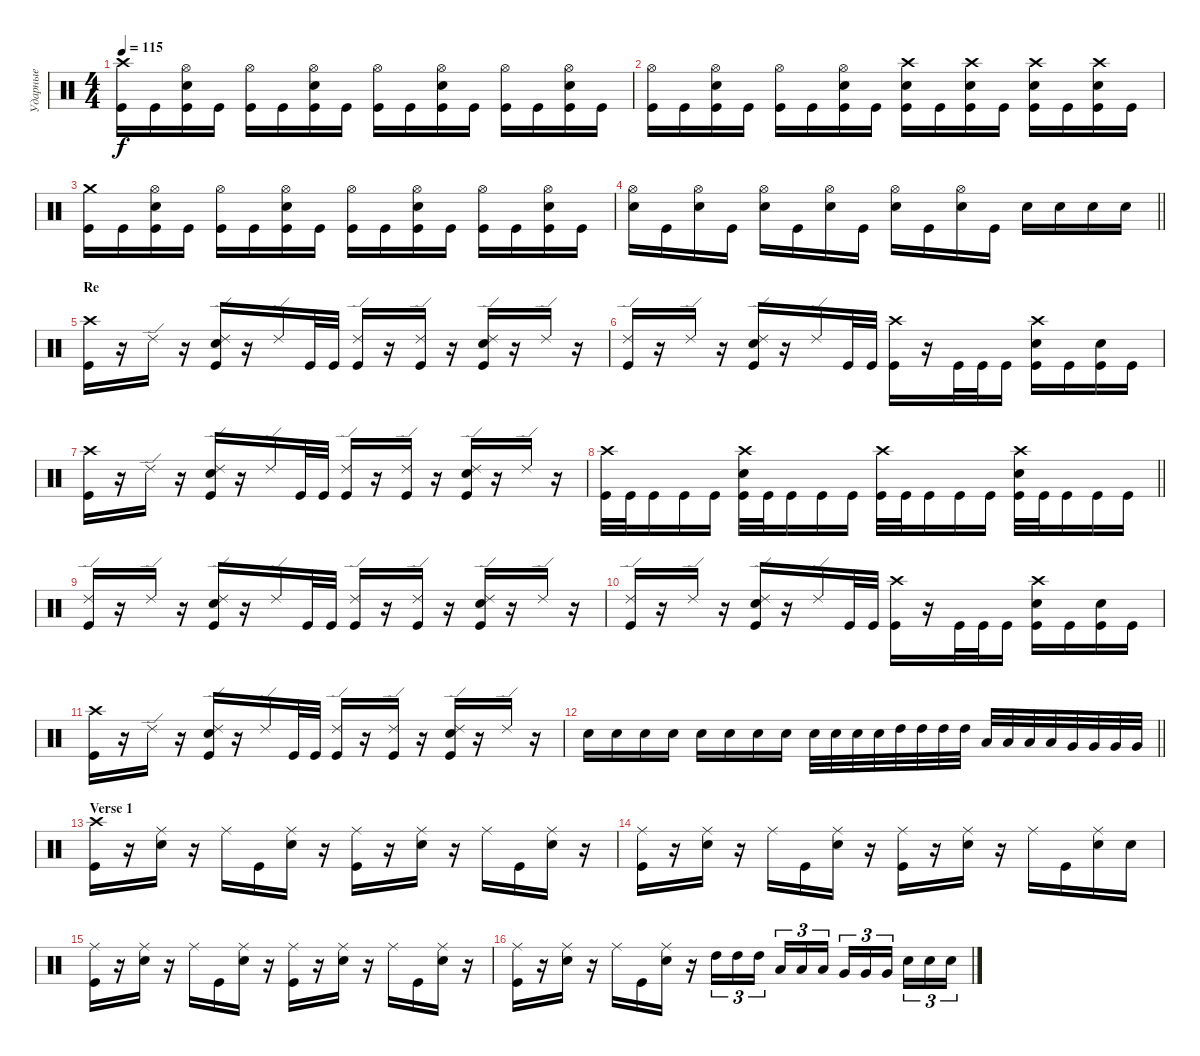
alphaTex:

\track ("Ударные" "Ударные") {instrument percussion}
\staff {score}
\articulation defaults
\ts (4 4)
\tempo 115
\clef neutral
\ks c
("Crash high (hit)" "Kick (hit)").16{dy f} "Kick (hit)".16 ("Hi-Hat (open)" "Snare (hit) 2" "Kick (hit)").16 "Kick (hit)".16 ("Hi-Hat (open)" "Kick (hit)").16 "Kick (hit)".16 ("Hi-Hat (open)" "Snare (hit) 2" "Kick (hit)").16 "Kick (hit)".16 ("Hi-Hat (open)" "Kick (hit)").16 "Kick (hit)".16 ("Hi-Hat (open)" "Snare (hit) 2" "Kick (hit)").16 "Kick (hit)".16 ("Hi-Hat (open)" "Kick (hit)").16 "Kick (hit)".16 ("Hi-Hat (open)" "Snare (hit) 2" "Kick (hit)").16 "Kick (hit)".16 |
("Hi-Hat (open)" "Kick (hit)").16 "Kick (hit)".16 ("Hi-Hat (open)" "Snare (hit) 2" "Kick (hit)").16 "Kick (hit)".16 ("Hi-Hat (open)" "Kick (hit)").16 "Kick (hit)".16 ("Hi-Hat (open)" "Snare (hit) 2" "Kick (hit)").16 "Kick (hit)".16 ("Crash high (hit)" "Snare (hit) 2" "Kick (hit)").16 "Kick (hit)".16 ("Crash high (hit)" "Snare (hit) 2" "Kick (hit)").16 "Kick (hit)".16 ("Crash high (hit)" "Snare (hit) 2" "Kick (hit)").16 "Kick (hit)".16 ("Crash high (hit)" "Snare (hit) 2" "Kick (hit)").16 "Kick (hit)".16 |
("Crash medium (hit)" "Kick (hit)").16 "Kick (hit)".16 ("Hi-Hat (open)" "Snare (hit) 2" "Kick (hit)").16 "Kick (hit)".16 ("Hi-Hat (open)" "Kick (hit)").16 "Kick (hit)".16 ("Hi-Hat (open)" "Snare (hit) 2" "Kick (hit)").16 "Kick (hit)".16 ("Hi-Hat (open)" "Kick (hit)").16 "Kick (hit)".16 ("Hi-Hat (open)" "Snare (hit) 2" "Kick (hit)").16 "Kick (hit)".16 ("Hi-Hat (open)" "Kick (hit)").16 "Kick (hit)".16 ("Hi-Hat (open)" "Snare (hit) 2" "Kick (hit)").16 "Kick (hit)".16 |
\barLineRight lightlight
("Hi-Hat (open)" "Snare (hit) 2").16 "Kick (hit)".16 ("Hi-Hat (open)" "Snare (hit) 2").16 "Kick (hit)".16 ("Hi-Hat (open)" "Snare (hit) 2").16 "Kick (hit)".16 ("Hi-Hat (open)" "Snare (hit) 2").16 "Kick (hit)".16 ("Hi-Hat (open)" "Snare (hit) 2").16 "Kick (hit)".16 ("Hi-Hat (open)" "Snare (hit) 2").16 "Kick (hit)".16 "Snare (hit) 2".16 "Snare (hit) 2".16 "Snare (hit) 2".16 "Snare (hit) 2".16 |
\section ("" "Re")
("Crash high (hit)" "Kick (hit)").16 r.16 "Ride (edge) 2".16 r.16 ("Ride (edge) 2" "Snare (hit) 2" "Kick (hit)").16 r.16 "Ride (edge) 2".16 "Kick (hit)".32 "Kick (hit)".32 ("Ride (edge) 2" "Kick (hit)").16 r.16 ("Ride (edge) 2" "Kick (hit)").16 r.16 ("Ride (edge) 2" "Snare (hit) 2" "Kick (hit)").16 r.16 "Ride (edge) 2".16 r.16 |
("Ride (edge) 2" "Kick (hit)").16 r.16 "Ride (edge) 2".16 r.16 ("Ride (edge) 2" "Snare (hit) 2" "Kick (hit)").16 r.16 "Ride (edge) 2".16 "Kick (hit)".32 "Kick (hit)".32 ("Crash high (hit)" "Kick (hit)").16 r.16 "Kick (hit)".32 "Kick (hit)".32 "Kick (hit)".16 ("Crash high (hit)" "Snare (hit) 2" "Kick (hit)").16 "Kick (hit)".16 ("Snare (hit) 2" "Kick (hit)").16 "Kick (hit)".16 |
("Crash high (hit)" "Kick (hit)").16 r.16 "Ride (edge) 2".16 r.16 ("Ride (edge) 2" "Snare (hit) 2" "Kick (hit)").16 r.16 "Ride (edge) 2".16 "Kick (hit)".32 "Kick (hit)".32 ("Ride (edge) 2" "Kick (hit)").16 r.16 ("Ride (edge) 2" "Kick (hit)").16 r.16 ("Ride (edge) 2" "Snare (hit) 2" "Kick (hit)").16 r.16 "Ride (edge) 2".16 r.16 |
\barLineRight lightlight
("Crash high (hit)" "Kick (hit)").32 "Kick (hit)".32 "Kick (hit)".16 "Kick (hit)".16 "Kick (hit)".16 ("Crash high (hit)" "Snare (hit) 2" "Kick (hit)").32 "Kick (hit)".32 "Kick (hit)".16 "Kick (hit)".16 "Kick (hit)".16 ("Crash high (hit)" "Kick (hit)").32 "Kick (hit)".32 "Kick (hit)".16 "Kick (hit)".16 "Kick (hit)".16 ("Crash high (hit)" "Snare (hit) 2" "Kick (hit)").32 "Kick (hit)".32 "Kick (hit)".16 "Kick (hit)".16 "Kick (hit)".16 |
("Ride (edge) 2" "Kick (hit)").16 r.16 "Ride (edge) 2".16 r.16 ("Ride (edge) 2" "Snare (hit) 2" "Kick (hit)").16 r.16 "Ride (edge) 2".16 "Kick (hit)".32 "Kick (hit)".32 ("Ride (edge) 2" "Kick (hit)").16 r.16 ("Ride (edge) 2" "Kick (hit)").16 r.16 ("Ride (edge) 2" "Snare (hit) 2" "Kick (hit)").16 r.16 "Ride (edge) 2".16 r.16 |
("Ride (edge) 2" "Kick (hit)").16 r.16 "Ride (edge) 2".16 r.16 ("Ride (edge) 2" "Snare (hit) 2" "Kick (hit)").16 r.16 "Ride (edge) 2".16 "Kick (hit)".32 "Kick (hit)".32 ("Crash high (hit)" "Kick (hit)").16 r.16 "Kick (hit)".32 "Kick (hit)".32 "Kick (hit)".16 ("Crash high (hit)" "Snare (hit) 2" "Kick (hit)").16 "Kick (hit)".16 ("Snare (hit) 2" "Kick (hit)").16 "Kick (hit)".16 |
("Crash high (hit)" "Kick (hit)").16 r.16 "Ride (edge) 2".16 r.16 ("Ride (edge) 2" "Snare (hit) 2" "Kick (hit)").16 r.16 "Ride (edge) 2".16 "Kick (hit)".32 "Kick (hit)".32 ("Ride (edge) 2" "Kick (hit)").16 r.16 ("Ride (edge) 2" "Kick (hit)").16 r.16 ("Ride (edge) 2" "Snare (hit) 2" "Kick (hit)").16 r.16 "Ride (edge) 2".16 r.16 |
\barLineRight lightlight "Snare (hit) 2".16 "Snare (hit) 2".16 "Snare (hit) 2".16 "Snare (hit) 2".16 "Snare (hit) 2".16 "Snare (hit) 2".16 "Snare (hit) 2".16 "Snare (hit) 2".16 "Snare (hit) 2".32 "Snare (hit) 2".32 "Snare (hit) 2".32 "Snare (hit) 2".32 "High Tom (hit)".32 "High Tom (hit)".32 "High Tom (hit)".32 "High Tom (hit)".32 "Low Tom (hit)".32 "Low Tom (hit)".32 "Low Tom (hit)".32 "Low Tom (hit)".32 "Very Low Tom (hit)".32 "Very Low Tom (hit)".32 "Very Low Tom (hit)".32 "Very Low Tom (hit)".32
|
\section ("" "Verse 1")
("Crash high (hit)" "Kick (hit)").16 r.16 ("Ride (middle)" "Snare (hit) 2").16 r.16 "Ride (middle)".16 "Kick (hit)".16 ("Ride (middle)" "Snare (hit) 2").16 r.16 ("Ride (middle)" "Kick (hit)").16 r.16 ("Ride (middle)" "Snare (hit) 2").16 r.16 "Ride (middle)".16 "Kick (hit)".16 ("Ride (middle)" "Snare (hit) 2").16 r.16 |
("Ride (middle)" "Kick (hit)").16 r.16 ("Ride (middle)" "Snare (hit) 2").16 r.16 "Ride (middle)".16 "Kick (hit)".16 ("Ride (middle)" "Snare (hit) 2").16 r.16 ("Ride (middle)" "Kick (hit)").16 r.16 ("Ride (middle)" "Snare (hit) 2").16 r.16 "Ride (middle)".16 "Kick (hit)".16 ("Ride (middle)" "Snare (hit) 2").16 "Snare (hit) 2".16 |
("Ride (middle)" "Kick (hit)").16 r.16 ("Ride (middle)" "Snare (hit) 2").16 r.16 "Ride (middle)".16 "Kick (hit)".16 ("Ride (middle)" "Snare (hit) 2").16 r.16 ("Ride (middle)" "Kick (hit)").16 r.16 ("Ride (middle)" "Snare (hit) 2").16 r.16 "Ride (middle)".16 "Kick (hit)".16 ("Ride (middle)" "Snare (hit) 2").16 r.16 |
("Ride (middle)" "Kick (hit)").16 r.16 ("Ride (middle)" "Snare (hit) 2").16 r.16 "Ride (middle)".16 "Kick (hit)".16 ("Ride (middle)" "Snare (hit) 2").16 r.16 "High Tom (hit)".16{tu (3 2)} "High Tom (hit)".16{tu (3 2)} "High Tom (hit)".16{tu (3 2) beam splitsecondary} "Low Tom (hit)".16{tu (3 2)} "Low Tom (hit)".16{tu (3 2)} "Low Tom (hit)".16{tu (3 2)} "Very Low Tom (hit)".16{tu (3 2)} "Very Low Tom (hit)".16{tu (3 2)} "Very Low Tom (hit)".16{tu (3 2) beam splitsecondary} "Snare (hit) 2".16{tu (3 2)} "Snare (hit) 2".16{tu (3 2)} "Snare (hit) 2".16{tu (3 2)}
